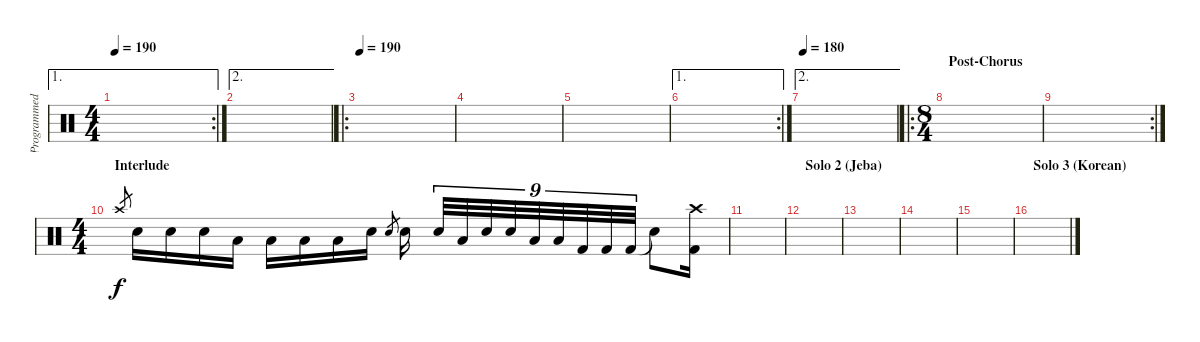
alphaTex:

\track ("Programmed Drums" "Programmed") {instrument percussion}
\staff {score}
\articulation defaults
\ae 1
\rc 2
\ts (4 4)
\tempo 190
\clef neutral
\ks c
|
\ae 2
|
\ro
\tempo 190
|
|
|
\ae 1
\rc 2
|
\ae 2
\tempo 180
|
\ro
\ts (8 4)
\section ("" "Post-Chorus")
|
\rc 2
|
\ts (4 4)
\section ("" "Interlude")
"Crash high (hit)".8{gr} "Snare (hit) 2".16{volume 8} "Snare (hit) 2".16 "Snare (hit) 2".16 "Low Floor Tom (hit)".16 "Low Floor Tom (hit)".16 "Low Tom (hit)".16 "Low Tom (hit)".16 "Snare (hit) 2".16 "Snare (hit) 2".8{gr} "Snare (hit) 2".16 "Snare (hit) 2".32{tu (9 8)} "Low Floor Tom (hit)".32{tu (9 8)} "Snare (hit) 2".32{tu (9 8)} "Snare (hit) 2".32{tu (9 8)} "Low Tom (hit)".32{tu (9 8)} "Low Tom (hit)".32{tu (9 8)} "Kick (hit) 2".32{tu (9 8)} "Kick (hit) 2".32{tu (9 8)} "Kick (hit) 2".32{tu (9 8)} "Snare (hit)"{t}.8 ("Crash high (hit)" "Kick (hit) 2").16 |
|
\section ("" "Solo 2 (Jeba)")
|
|
|
|
\section ("" "Solo 3 (Korean)")
